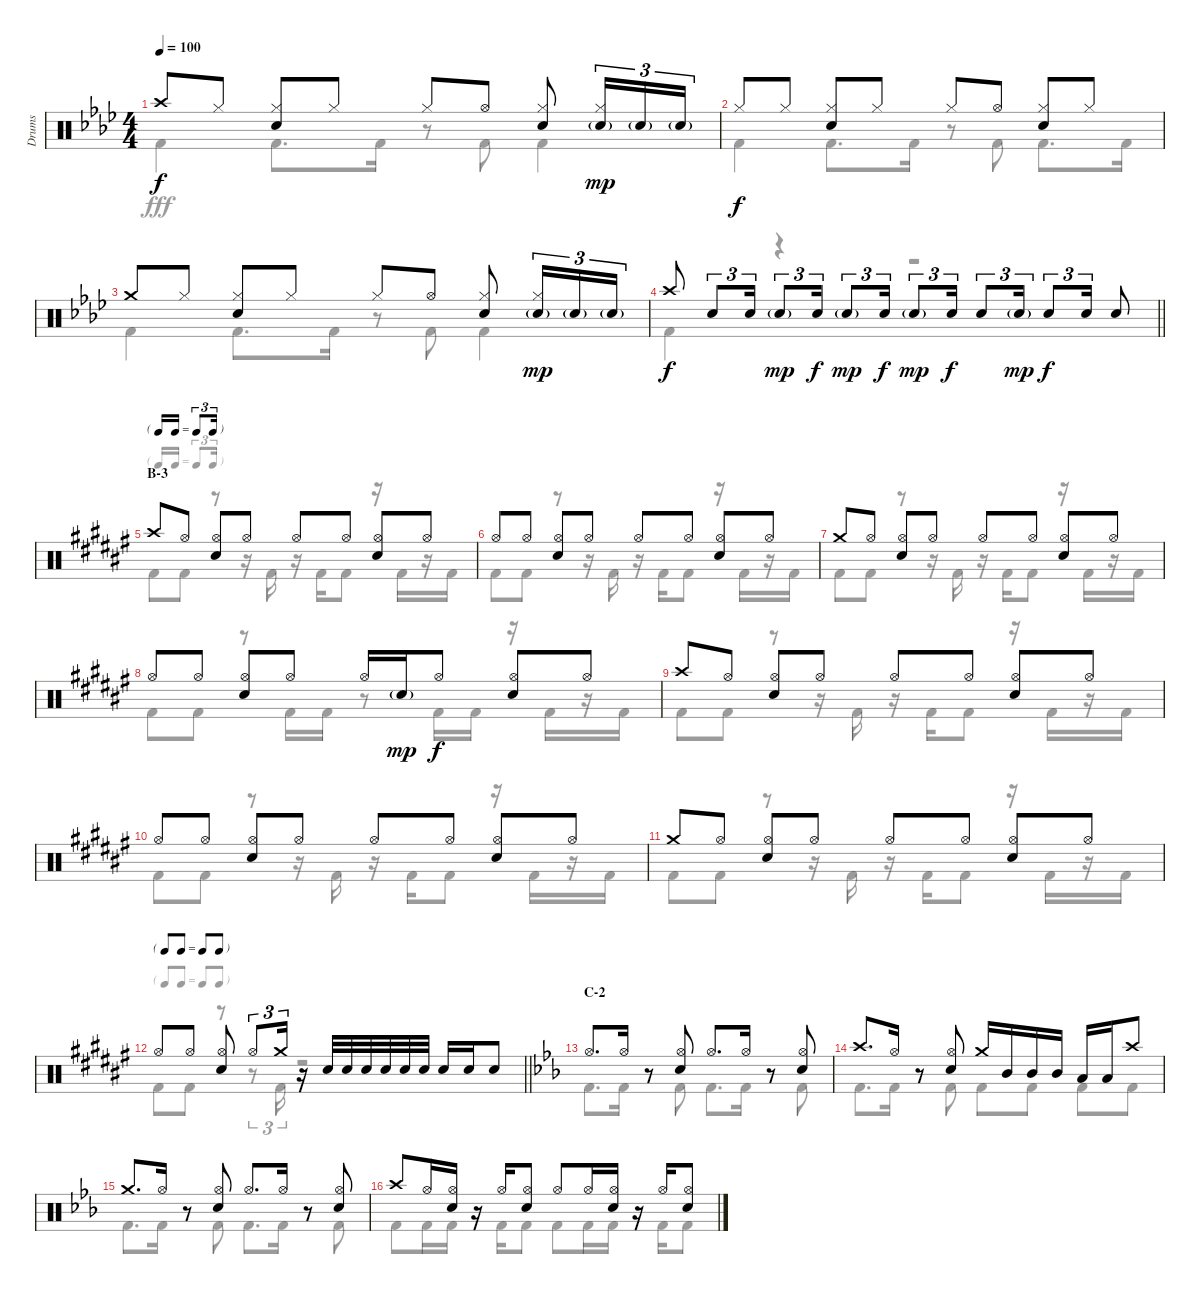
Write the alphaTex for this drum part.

\track ("Drums" "Drums") {instrument percussion}
\staff {score}
\articulation defaults
\voice
\ts (4 4)
\tempo 100
\clef neutral
\ks fminor "Crash high (hit)".8{dy f} "Hi-Hat (closed)".8
("Hi-Hat (closed)" "Snare (hit) 2").8 "Hi-Hat (closed)".8 "Hi-Hat (closed)".8 "Hi-Hat (open)".8 ("Hi-Hat (closed)" "Snare (hit) 2").8 ("Hi-Hat (closed)" "Snare (hit) 2"{g}).16{tu (3 2) dy mp} "Snare (hit) 2"{g}.16{tu (3 2)} "Snare (hit) 2"{g}.16{tu (3 2)} |
"Hi-Hat (closed)".8{dy f} "Hi-Hat (closed)".8 ("Hi-Hat (closed)" "Snare (hit) 2").8 "Hi-Hat (closed)".8 "Hi-Hat (closed)".8 "Hi-Hat (open)".8 ("Hi-Hat (closed)" "Snare (hit) 2").8 "Hi-Hat (closed)".8 |
"Crash medium (hit)".8 "Hi-Hat (closed)".8 ("Hi-Hat (closed)" "Snare (hit) 2").8 "Hi-Hat (closed)".8 "Hi-Hat (closed)".8 "Hi-Hat (open)".8 ("Hi-Hat (closed)" "Snare (hit) 2").8 ("Hi-Hat (closed)" "Snare (hit) 2"{g}).16{tu (3 2) dy mp} "Snare (hit) 2"{g}.16{tu (3 2)} "Snare (hit) 2"{g}.16{tu (3 2)} |
\barLineRight lightlight "Crash high (hit)".8{dy f} "Snare (hit) 2".8{tu (3 2)} "Snare (hit) 2".16{tu (3 2)} "Snare (hit) 2"{g}.8{tu (3 2) dy mp} "Snare (hit) 2".16{tu (3 2) dy f} "Snare (hit) 2"{g}.8{tu (3 2) dy mp} "Snare (hit) 2".16{tu (3 2) dy f} "Snare (hit) 2"{g}.8{tu (3 2) dy mp} "Snare (hit) 2".16{tu (3 2) dy f} "Snare (hit) 2".8{tu (3 2)} "Snare (hit) 2"{g}.16{tu (3 2) dy mp} "Snare (hit) 2".8{tu (3 2) dy f} "Snare (hit) 2".16{tu (3 2)} "Snare (hit) 2".8
|
\tf triplet16th
\section ("" "B-3")
\ks f# "Crash high (hit)".8 "Hi-Hat (open)".8
("Hi-Hat (open)" "Snare (hit) 2").8 "Hi-Hat (open)".8 "Hi-Hat (open)".8 "Hi-Hat (open)".8 ("Hi-Hat (open)" "Snare (hit) 2").8 "Hi-Hat (open)".8 |
"Hi-Hat (open)".8 "Hi-Hat (open)".8 ("Hi-Hat (open)" "Snare (hit) 2").8 "Hi-Hat (open)".8 "Hi-Hat (open)".8 "Hi-Hat (open)".8 ("Hi-Hat (open)" "Snare (hit) 2").8 "Hi-Hat (open)".8 |
"Crash medium (hit)".8 "Hi-Hat (open)".8 ("Hi-Hat (open)" "Snare (hit) 2").8 "Hi-Hat (open)".8 "Hi-Hat (open)".8 "Hi-Hat (open)".8 ("Hi-Hat (open)" "Snare (hit) 2").8 "Hi-Hat (open)".8 |
"Hi-Hat (open)".8 "Hi-Hat (open)".8 ("Hi-Hat (open)" "Snare (hit) 2").8 "Hi-Hat (open)".8 "Hi-Hat (open)".16 "Snare (hit) 2"{g}.16{dy mp} "Hi-Hat (open)".8{dy f} ("Hi-Hat (open)" "Snare (hit) 2").8 "Hi-Hat (open)".8 |
"Crash high (hit)".8 "Hi-Hat (open)".8 ("Hi-Hat (open)" "Snare (hit) 2").8 "Hi-Hat (open)".8 "Hi-Hat (open)".8 "Hi-Hat (open)".8 ("Hi-Hat (open)" "Snare (hit) 2").8 "Hi-Hat (open)".8 |
"Hi-Hat (open)".8 "Hi-Hat (open)".8 ("Hi-Hat (open)" "Snare (hit) 2").8 "Hi-Hat (open)".8 "Hi-Hat (open)".8 "Hi-Hat (open)".8 ("Hi-Hat (open)" "Snare (hit) 2").8 "Hi-Hat (open)".8 |
"Crash medium (hit)".8 "Hi-Hat (open)".8 ("Hi-Hat (open)" "Snare (hit) 2").8 "Hi-Hat (open)".8 "Hi-Hat (open)".8 "Hi-Hat (open)".8 ("Hi-Hat (open)" "Snare (hit) 2").8 "Hi-Hat (open)".8 |
\tf none
\barLineRight lightlight "Hi-Hat (open)".8 "Hi-Hat (open)".8
("Hi-Hat (open)" "Snare (hit) 2").8 "Hi-Hat (open)".8{tu (3 2)} "Crash medium (hit)".16{tu (3 2)} r.16 "Snare (hit) 2".32 "Snare (hit) 2".32 "Snare (hit) 2".32 "Snare (hit) 2".32 "Snare (hit) 2".32 "Snare (hit) 2".32 "Snare (hit) 2".16 "Snare (hit) 2".16 "Snare (hit) 2".8 |
\section ("" "C-2")
\ks eb "Hi-Hat (open)".8{d} "Hi-Hat (open)".16
r.8 ("Hi-Hat (open)" "Snare (hit) 2").8 "Hi-Hat (open)".8{d} "Hi-Hat (open)".16 r.8 ("Hi-Hat (open)" "Snare (hit) 2").8 |
"Crash high (hit)".8{d} "Hi-Hat (open)".16 r.8 ("Hi-Hat (open)" "Snare (hit) 2").8 "Crash medium (hit)".16 "Mid Tom (hit)".16 "Mid Tom (hit)".16 "Mid Tom (hit)".16 "Low Tom (hit)".16 "Low Tom (hit)".16 "Crash high (hit)".8 |
"Crash medium (hit)".8{d} "Hi-Hat (open)".16 r.8 ("Hi-Hat (open)" "Snare (hit) 2").8 "Hi-Hat (open)".8{d} "Hi-Hat (open)".16 r.8 ("Hi-Hat (open)" "Snare (hit) 2").8 |
"Crash high (hit)".8 "Hi-Hat (open)".16 ("Hi-Hat (open)" "Snare (hit) 2").16 r.16 "Hi-Hat (open)".16 ("Hi-Hat (open)" "Snare (hit) 2").8 "Hi-Hat (open)".8 "Hi-Hat (open)".16 ("Hi-Hat (open)" "Snare (hit) 2").16 r.16 "Hi-Hat (open)".16 ("Hi-Hat (open)" "Snare (hit) 2").8
\voice
\clef neutral
\ottava regular
\simile none
\ks fminor "Kick (hit) 2".4{dy fff} "Kick (hit) 2".8{d} "Kick (hit) 2".16
r.8 "Kick (hit) 2".8 "Kick (hit) 2".4 |
"Kick (hit) 2".4 "Kick (hit) 2".8{d} "Kick (hit) 2".16 r.8 "Kick (hit) 2".8 "Kick (hit) 2".8{d} "Kick (hit) 2".16 |
"Kick (hit) 2".4 "Kick (hit) 2".8{d} "Kick (hit) 2".16 r.8 "Kick (hit) 2".8 "Kick (hit) 2".4 |
\barLineRight lightlight "Kick (hit) 2".4
r.4 r.2 |
\ks f# "Kick (hit) 2".8 "Kick (hit) 2".8
r.8 r.16 "Kick (hit) 2".16 r.16 "Kick (hit) 2".16 "Kick (hit) 2".8 r.16 "Kick (hit) 2".16 r.16 "Kick (hit) 2".16 |
"Kick (hit) 2".8 "Kick (hit) 2".8 r.8 r.16 "Kick (hit) 2".16 r.16 "Kick (hit) 2".16 "Kick (hit) 2".8 r.16 "Kick (hit) 2".16 r.16 "Kick (hit) 2".16 |
"Kick (hit) 2".8 "Kick (hit) 2".8 r.8 r.16 "Kick (hit) 2".16 r.16 "Kick (hit) 2".16 "Kick (hit) 2".8 r.16 "Kick (hit) 2".16 r.16 "Kick (hit) 2".16 |
"Kick (hit) 2".8 "Kick (hit) 2".8 r.8 "Kick (hit) 2".16 "Kick (hit) 2".16 r.8 "Kick (hit) 2".16 "Kick (hit) 2".16 r.16 "Kick (hit) 2".16 r.16 "Kick (hit) 2".16 |
"Kick (hit) 2".8 "Kick (hit) 2".8 r.8 r.16 "Kick (hit) 2".16 r.16 "Kick (hit) 2".16 "Kick (hit) 2".8 r.16 "Kick (hit) 2".16 r.16 "Kick (hit) 2".16 |
"Kick (hit) 2".8 "Kick (hit) 2".8 r.8 r.16 "Kick (hit) 2".16 r.16 "Kick (hit) 2".16 "Kick (hit) 2".8 r.16 "Kick (hit) 2".16 r.16 "Kick (hit) 2".16 |
"Kick (hit) 2".8 "Kick (hit) 2".8 r.8 r.16 "Kick (hit) 2".16 r.16 "Kick (hit) 2".16 "Kick (hit) 2".8 r.16 "Kick (hit) 2".16 r.16 "Kick (hit) 2".16 |
\barLineRight lightlight "Kick (hit) 2".8 "Kick (hit) 2".8
r.8 r.8{tu (3 2)} "Kick (hit) 2".16{tu (3 2)} r.2 |
\ks eb "Kick (hit) 2".8{d} "Kick (hit) 2".16
r.8 "Kick (hit) 2".8 "Kick (hit) 2".8{d} "Kick (hit) 2".16 r.8 "Kick (hit) 2".8 |
"Kick (hit) 2".8{d} "Kick (hit) 2".16 r.8 "Kick (hit) 2".8 "Kick (hit) 2".8 "Kick (hit) 2".8 "Kick (hit) 2".8 "Kick (hit) 2".8 |
"Kick (hit) 2".8{d} "Kick (hit) 2".16 r.8 "Kick (hit) 2".8 "Kick (hit) 2".8{d} "Kick (hit) 2".16 r.8 "Kick (hit) 2".8 |
"Kick (hit) 2".8 "Kick (hit) 2".16 "Kick (hit) 2".16 r.16 "Kick (hit) 2".16 "Kick (hit) 2".8 "Kick (hit) 2".8 "Kick (hit) 2".16 "Kick (hit) 2".16 r.16 "Kick (hit) 2".16 "Kick (hit) 2".8
